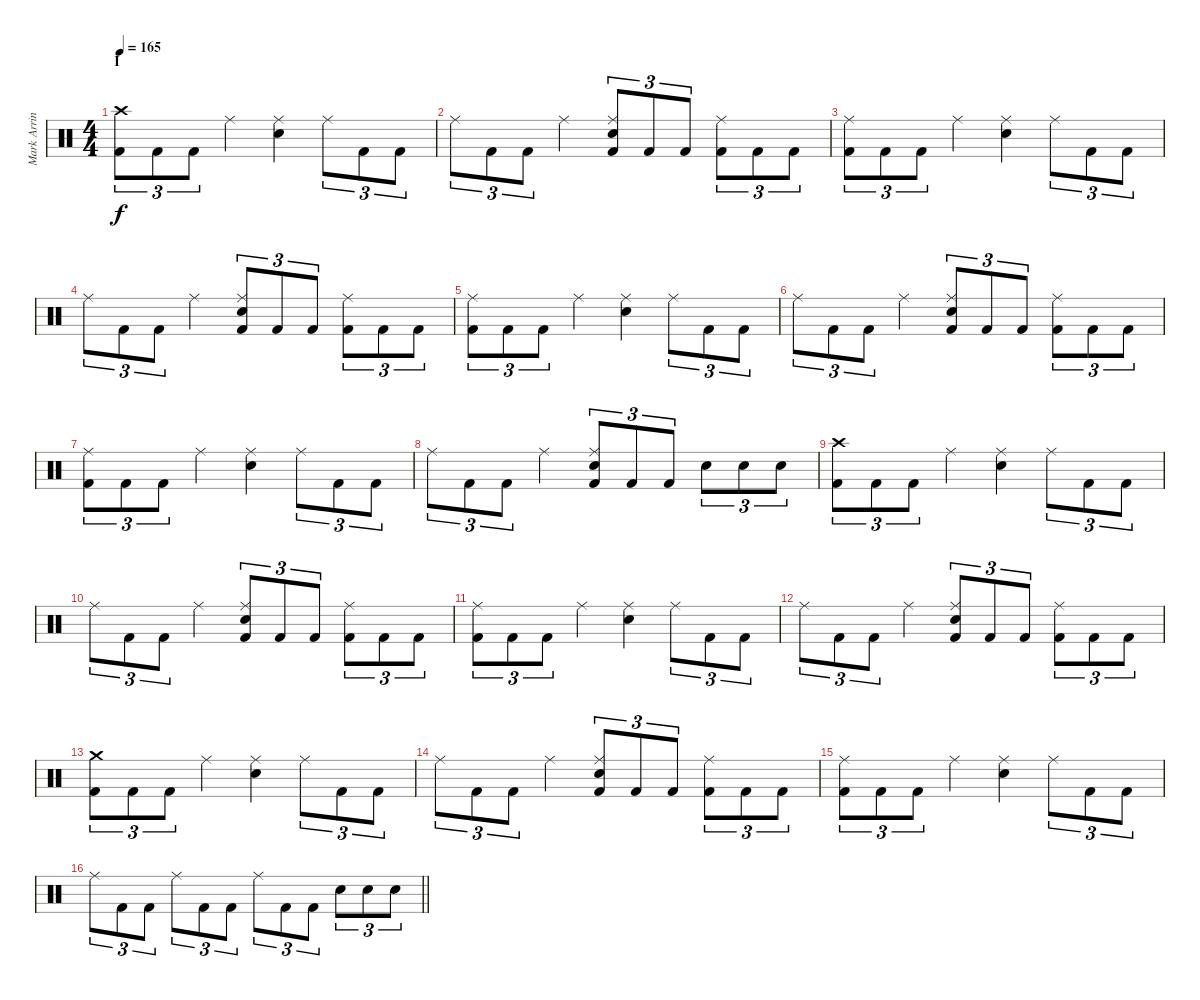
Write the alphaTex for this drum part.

\track ("Mark Arrington Drums" "Mark Arrin") {instrument percussion}
\staff {score}
\articulation defaults
\ts (4 4)
\section ("" "I")
\tempo 165
\clef neutral
\ks c
("Crash high (hit)" "Kick (hit) 2").8{tu (3 2) dy f} "Kick (hit) 2".8{tu (3 2)} "Kick (hit) 2".8{tu (3 2)} "Ride (middle)".4 ("Ride (middle)" "Electric Snare (hit)").4 "Ride (middle)".8{tu (3 2)} "Kick (hit) 2".8{tu (3 2)} "Kick (hit) 2".8{tu (3 2)} |
"Ride (middle)".8{tu (3 2)} "Kick (hit) 2".8{tu (3 2)} "Kick (hit) 2".8{tu (3 2)} "Ride (middle)".4 ("Ride (middle)" "Electric Snare (hit)" "Kick (hit) 2").8{tu (3 2)} "Kick (hit) 2".8{tu (3 2)} "Kick (hit) 2".8{tu (3 2)} ("Ride (middle)" "Kick (hit) 2").8{tu (3 2)} "Kick (hit) 2".8{tu (3 2)} "Kick (hit) 2".8{tu (3 2)} |
("Ride (middle)" "Kick (hit) 2").8{tu (3 2)} "Kick (hit) 2".8{tu (3 2)} "Kick (hit) 2".8{tu (3 2)} "Ride (middle)".4 ("Ride (middle)" "Electric Snare (hit)").4 "Ride (middle)".8{tu (3 2)} "Kick (hit) 2".8{tu (3 2)} "Kick (hit) 2".8{tu (3 2)} |
"Ride (middle)".8{tu (3 2)} "Kick (hit) 2".8{tu (3 2)} "Kick (hit) 2".8{tu (3 2)} "Ride (middle)".4 ("Ride (middle)" "Electric Snare (hit)" "Kick (hit) 2").8{tu (3 2)} "Kick (hit) 2".8{tu (3 2)} "Kick (hit) 2".8{tu (3 2)} ("Ride (middle)" "Kick (hit) 2").8{tu (3 2)} "Kick (hit) 2".8{tu (3 2)} "Kick (hit) 2".8{tu (3 2)} |
("Ride (middle)" "Kick (hit) 2").8{tu (3 2)} "Kick (hit) 2".8{tu (3 2)} "Kick (hit) 2".8{tu (3 2)} "Ride (middle)".4 ("Ride (middle)" "Electric Snare (hit)").4 "Ride (middle)".8{tu (3 2)} "Kick (hit) 2".8{tu (3 2)} "Kick (hit) 2".8{tu (3 2)} |
"Ride (middle)".8{tu (3 2)} "Kick (hit) 2".8{tu (3 2)} "Kick (hit) 2".8{tu (3 2)} "Ride (middle)".4 ("Ride (middle)" "Electric Snare (hit)" "Kick (hit) 2").8{tu (3 2)} "Kick (hit) 2".8{tu (3 2)} "Kick (hit) 2".8{tu (3 2)} ("Ride (middle)" "Kick (hit) 2").8{tu (3 2)} "Kick (hit) 2".8{tu (3 2)} "Kick (hit) 2".8{tu (3 2)} |
("Ride (middle)" "Kick (hit) 2").8{tu (3 2)} "Kick (hit) 2".8{tu (3 2)} "Kick (hit) 2".8{tu (3 2)} "Ride (middle)".4 ("Ride (middle)" "Electric Snare (hit)").4 "Ride (middle)".8{tu (3 2)} "Kick (hit) 2".8{tu (3 2)} "Kick (hit) 2".8{tu (3 2)} |
"Ride (middle)".8{tu (3 2)} "Kick (hit) 2".8{tu (3 2)} "Kick (hit) 2".8{tu (3 2)} "Ride (middle)".4 ("Ride (middle)" "Electric Snare (hit)" "Kick (hit) 2").8{tu (3 2)} "Kick (hit) 2".8{tu (3 2)} "Kick (hit) 2".8{tu (3 2)} "Electric Snare (hit)".8{tu (3 2)} "Electric Snare (hit)".8{tu (3 2)} "Electric Snare (hit)".8{tu (3 2)} |
("Crash high (hit)" "Kick (hit) 2").8{tu (3 2)} "Kick (hit) 2".8{tu (3 2)} "Kick (hit) 2".8{tu (3 2)} "Ride (middle)".4 ("Ride (middle)" "Electric Snare (hit)").4 "Ride (middle)".8{tu (3 2)} "Kick (hit) 2".8{tu (3 2)} "Kick (hit) 2".8{tu (3 2)} |
"Ride (middle)".8{tu (3 2)} "Kick (hit) 2".8{tu (3 2)} "Kick (hit) 2".8{tu (3 2)} "Ride (middle)".4 ("Ride (middle)" "Electric Snare (hit)" "Kick (hit) 2").8{tu (3 2)} "Kick (hit) 2".8{tu (3 2)} "Kick (hit) 2".8{tu (3 2)} ("Ride (middle)" "Kick (hit) 2").8{tu (3 2)} "Kick (hit) 2".8{tu (3 2)} "Kick (hit) 2".8{tu (3 2)} |
("Ride (middle)" "Kick (hit) 2").8{tu (3 2)} "Kick (hit) 2".8{tu (3 2)} "Kick (hit) 2".8{tu (3 2)} "Ride (middle)".4 ("Ride (middle)" "Electric Snare (hit)").4 "Ride (middle)".8{tu (3 2)} "Kick (hit) 2".8{tu (3 2)} "Kick (hit) 2".8{tu (3 2)} |
"Ride (middle)".8{tu (3 2)} "Kick (hit) 2".8{tu (3 2)} "Kick (hit) 2".8{tu (3 2)} "Ride (middle)".4 ("Ride (middle)" "Electric Snare (hit)" "Kick (hit) 2").8{tu (3 2)} "Kick (hit) 2".8{tu (3 2)} "Kick (hit) 2".8{tu (3 2)} ("Ride (middle)" "Kick (hit) 2").8{tu (3 2)} "Kick (hit) 2".8{tu (3 2)} "Kick (hit) 2".8{tu (3 2)} |
("Crash medium (hit)" "Kick (hit) 2").8{tu (3 2)} "Kick (hit) 2".8{tu (3 2)} "Kick (hit) 2".8{tu (3 2)} "Ride (middle)".4 ("Ride (middle)" "Electric Snare (hit)").4 "Ride (middle)".8{tu (3 2)} "Kick (hit) 2".8{tu (3 2)} "Kick (hit) 2".8{tu (3 2)} |
"Ride (middle)".8{tu (3 2)} "Kick (hit) 2".8{tu (3 2)} "Kick (hit) 2".8{tu (3 2)} "Ride (middle)".4 ("Ride (middle)" "Electric Snare (hit)" "Kick (hit) 2").8{tu (3 2)} "Kick (hit) 2".8{tu (3 2)} "Kick (hit) 2".8{tu (3 2)} ("Ride (middle)" "Kick (hit) 2").8{tu (3 2)} "Kick (hit) 2".8{tu (3 2)} "Kick (hit) 2".8{tu (3 2)} |
("Ride (middle)" "Kick (hit) 2").8{tu (3 2)} "Kick (hit) 2".8{tu (3 2)} "Kick (hit) 2".8{tu (3 2)} "Ride (middle)".4 ("Ride (middle)" "Electric Snare (hit)").4 "Ride (middle)".8{tu (3 2)} "Kick (hit) 2".8{tu (3 2)} "Kick (hit) 2".8{tu (3 2)} |
\barLineRight lightlight "Ride (middle)".8{tu (3 2)} "Kick (hit) 2".8{tu (3 2)} "Kick (hit) 2".8{tu (3 2)} "Ride (middle)".8{tu (3 2)} "Kick (hit) 2".8{tu (3 2)} "Kick (hit) 2".8{tu (3 2)} "Ride (middle)".8{tu (3 2)} "Kick (hit) 2".8{tu (3 2)} "Kick (hit) 2".8{tu (3 2)} "Electric Snare (hit)".8{tu (3 2)} "Electric Snare (hit)".8{tu (3 2)} "Electric Snare (hit)".8{tu (3 2)}
